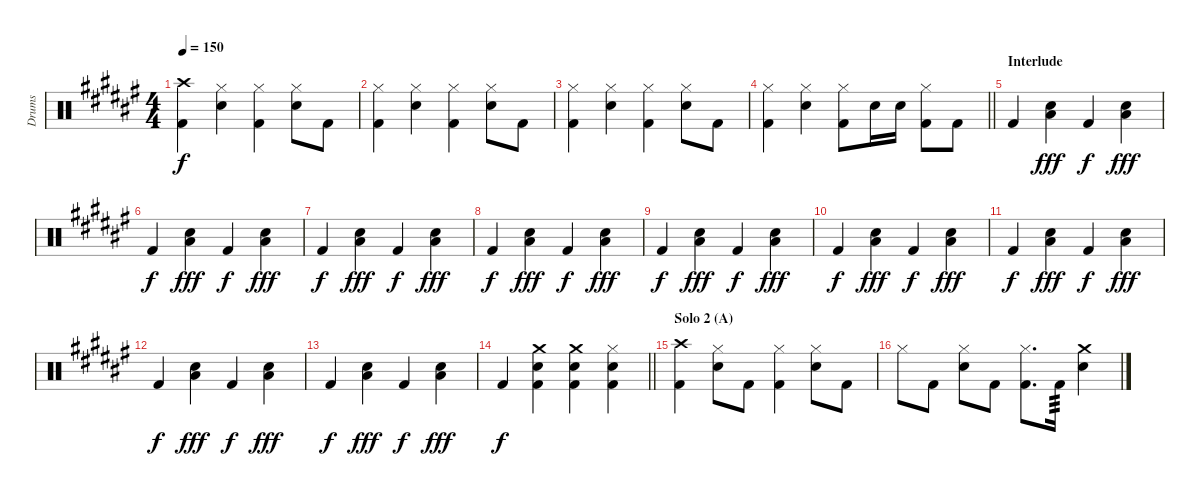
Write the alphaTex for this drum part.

\track ("Drums" "Drums") {instrument percussion}
\staff {score}
\articulation defaults
\ts (4 4)
\tempo 150
\clef neutral
\ks f#
("Crash high (hit)" "Kick (hit) 2").4{dy f} ("Electric Snare (hit)" "Hi-Hat (closed)").4 ("Hi-Hat (closed)" "Kick (hit) 2").4 ("Electric Snare (hit)" "Hi-Hat (closed)").8 "Kick (hit) 2".8 |
("Hi-Hat (closed)" "Kick (hit) 2").4 ("Electric Snare (hit)" "Hi-Hat (closed)").4 ("Hi-Hat (closed)" "Kick (hit) 2").4 ("Electric Snare (hit)" "Hi-Hat (closed)").8 "Kick (hit) 2".8 |
("Hi-Hat (closed)" "Kick (hit) 2").4 ("Electric Snare (hit)" "Hi-Hat (closed)").4 ("Hi-Hat (closed)" "Kick (hit) 2").4 ("Electric Snare (hit)" "Hi-Hat (closed)").8 "Kick (hit) 2".8 |
\barLineRight lightlight
("Hi-Hat (closed)" "Kick (hit) 2").4 ("Electric Snare (hit)" "Hi-Hat (closed)").4 ("Hi-Hat (closed)" "Kick (hit) 2").8 "Electric Snare (hit)".16 "Electric Snare (hit)".16 ("Hi-Hat (closed)" "Kick (hit) 2").8 "Kick (hit) 2".8 |
\section ("" "Interlude")
"Kick (hit) 2".4 ("Electric Snare (hit)" "Low Floor Tom (hit)").4{dy fff} "Kick (hit) 2".4{dy f} ("Electric Snare (hit)" "Low Floor Tom (hit)").4{dy fff} |
"Kick (hit) 2".4{dy f} ("Electric Snare (hit)" "Low Floor Tom (hit)").4{dy fff} "Kick (hit) 2".4{dy f} ("Electric Snare (hit)" "Low Floor Tom (hit)").4{dy fff} |
"Kick (hit) 2".4{dy f} ("Electric Snare (hit)" "Low Floor Tom (hit)").4{dy fff} "Kick (hit) 2".4{dy f} ("Electric Snare (hit)" "Low Floor Tom (hit)").4{dy fff} |
"Kick (hit) 2".4{dy f} ("Electric Snare (hit)" "Low Floor Tom (hit)").4{dy fff} "Kick (hit) 2".4{dy f} ("Electric Snare (hit)" "Low Floor Tom (hit)").4{dy fff} |
"Kick (hit) 2".4{dy f} ("Electric Snare (hit)" "Low Floor Tom (hit)").4{dy fff} "Kick (hit) 2".4{dy f} ("Electric Snare (hit)" "Low Floor Tom (hit)").4{dy fff} |
"Kick (hit) 2".4{dy f} ("Electric Snare (hit)" "Low Floor Tom (hit)").4{dy fff} "Kick (hit) 2".4{dy f} ("Electric Snare (hit)" "Low Floor Tom (hit)").4{dy fff} |
"Kick (hit) 2".4{dy f} ("Electric Snare (hit)" "Low Floor Tom (hit)").4{dy fff} "Kick (hit) 2".4{dy f} ("Electric Snare (hit)" "Low Floor Tom (hit)").4{dy fff} |
"Kick (hit) 2".4{dy f} ("Electric Snare (hit)" "Low Floor Tom (hit)").4{dy fff} "Kick (hit) 2".4{dy f} ("Electric Snare (hit)" "Low Floor Tom (hit)").4{dy fff} |
"Kick (hit) 2".4{dy f} ("Electric Snare (hit)" "Low Floor Tom (hit)").4{dy fff} "Kick (hit) 2".4{dy f} ("Electric Snare (hit)" "Low Floor Tom (hit)").4{dy fff} |
\barLineRight lightlight "Kick (hit) 2".4{dy f}
("Crash medium (hit)" "Electric Snare (hit)" "Kick (hit) 2").4 ("Crash medium (hit)" "Electric Snare (hit)" "Kick (hit) 2").4 ("Electric Snare (hit)" "Hi-Hat (closed)" "Kick (hit) 2").4 |
\section ("" "Solo 2 (A)")
("Crash high (hit)" "Kick (hit) 2").4 ("Electric Snare (hit)" "Hi-Hat (closed)").8 "Kick (hit) 2".8 ("Hi-Hat (closed)" "Kick (hit) 2").4 ("Electric Snare (hit)" "Hi-Hat (closed)").8 "Kick (hit) 2".8 |
"Hi-Hat (closed)".8 "Kick (hit) 2".8 ("Electric Snare (hit)" "Hi-Hat (closed)").8 "Kick (hit) 2".8 ("Hi-Hat (closed)" "Kick (hit) 2").8{d} "Kick (hit) 2".16{tp 3} ("Crash medium (hit)" "Electric Snare (hit)").4
